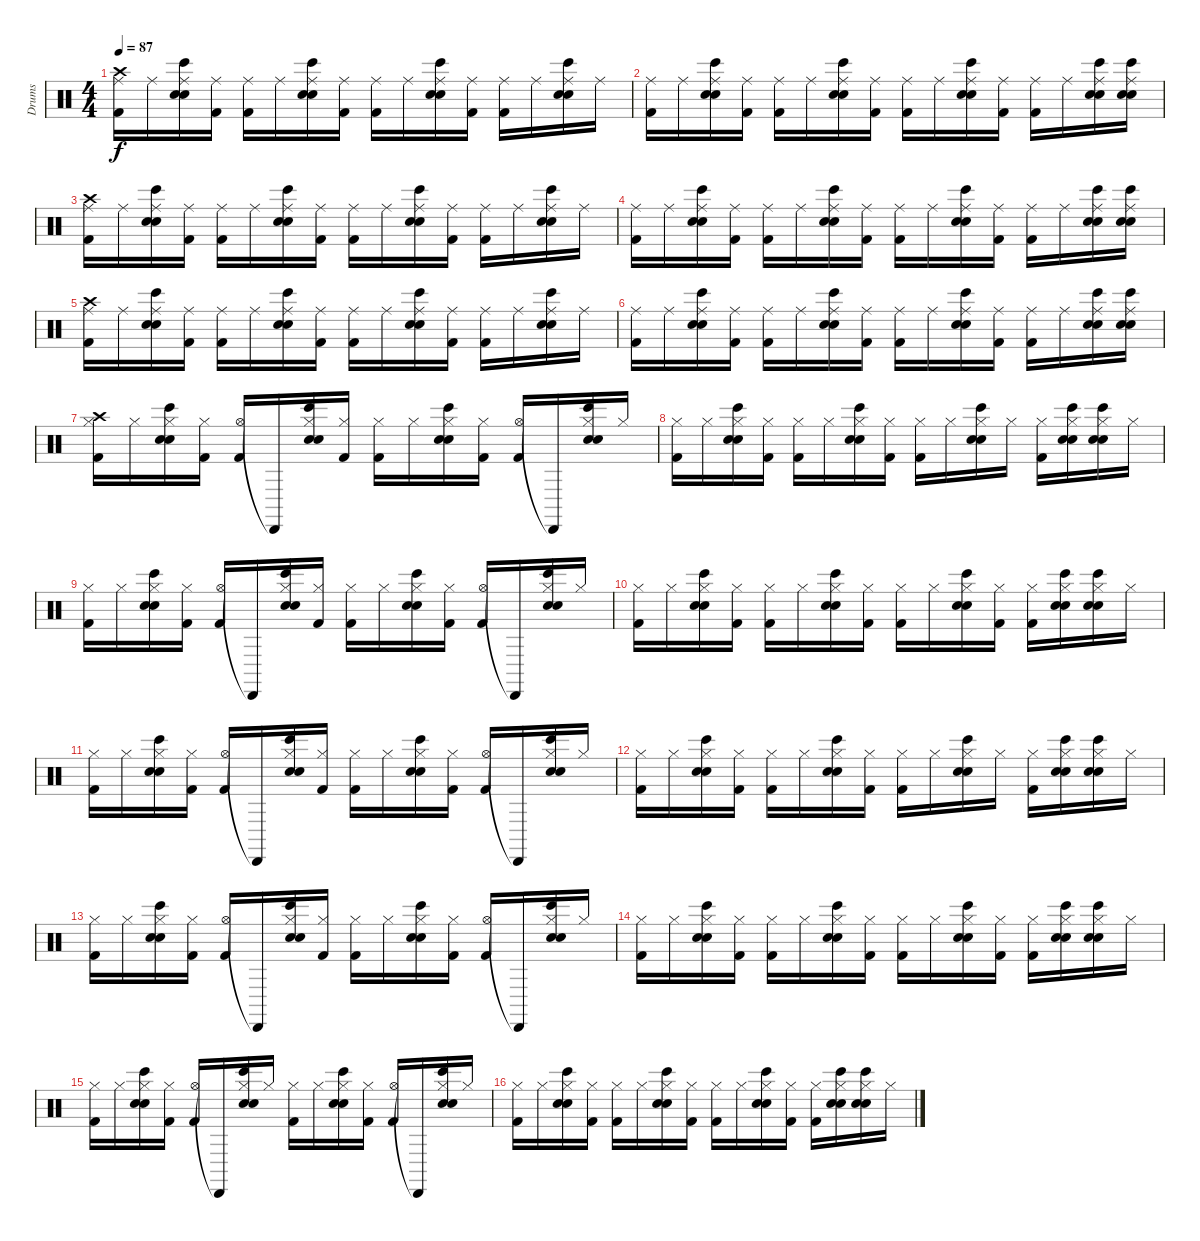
\track ("Drums" "Drums") {instrument percussion}
\staff {score}
\articulation defaults
\ts (4 4)
\tempo 87
\clef neutral
\ks c
("Crash high (hit)" "Ride (middle)" "Kick (hit) 2").16{dy f} "Ride (middle)".16 ("Ride (middle)" "Electric Snare (hit)" "Bongo High (hit)" "Snare (hit) 2").16 ("Ride (middle)" "Kick (hit) 2").16 ("Ride (middle)" "Kick (hit) 2").16 "Ride (middle)".16 ("Ride (middle)" "Electric Snare (hit)" "Bongo High (hit)" "Snare (hit) 2").16 ("Ride (middle)" "Kick (hit) 2").16 ("Ride (middle)" "Kick (hit) 2").16 "Ride (middle)".16 ("Ride (middle)" "Electric Snare (hit)" "Bongo High (hit)" "Snare (hit) 2").16 ("Ride (middle)" "Kick (hit) 2").16 ("Ride (middle)" "Kick (hit) 2").16 "Ride (middle)".16 ("Ride (middle)" "Electric Snare (hit)" "Bongo High (hit)" "Snare (hit) 2").16 "Ride (middle)".16 |
("Ride (middle)" "Kick (hit) 2").16 "Ride (middle)".16 ("Ride (middle)" "Electric Snare (hit)" "Bongo High (hit)" "Snare (hit) 2").16 ("Ride (middle)" "Kick (hit) 2").16 ("Ride (middle)" "Kick (hit) 2").16 "Ride (middle)".16 ("Ride (middle)" "Electric Snare (hit)" "Bongo High (hit)" "Snare (hit) 2").16 ("Ride (middle)" "Kick (hit) 2").16 ("Ride (middle)" "Kick (hit) 2").16 "Ride (middle)".16 ("Ride (middle)" "Electric Snare (hit)" "Bongo High (hit)" "Snare (hit) 2").16 ("Ride (middle)" "Kick (hit) 2").16 ("Ride (middle)" "Kick (hit) 2").16 "Ride (middle)".16 ("Ride (middle)" "Electric Snare (hit)" "Bongo High (hit)" "Snare (hit) 2").16 ("Ride (middle)" "Electric Snare (hit)" "Bongo High (hit)" "Snare (hit) 2").16 |
("Crash high (hit)" "Ride (middle)" "Kick (hit) 2").16 "Ride (middle)".16 ("Ride (middle)" "Electric Snare (hit)" "Bongo High (hit)" "Snare (hit) 2").16 ("Ride (middle)" "Kick (hit) 2").16 ("Ride (middle)" "Kick (hit) 2").16 "Ride (middle)".16 ("Ride (middle)" "Electric Snare (hit)" "Bongo High (hit)" "Snare (hit) 2").16 ("Ride (middle)" "Kick (hit) 2").16 ("Ride (middle)" "Kick (hit) 2").16 "Ride (middle)".16 ("Ride (middle)" "Electric Snare (hit)" "Bongo High (hit)" "Snare (hit) 2").16 ("Ride (middle)" "Kick (hit) 2").16 ("Ride (middle)" "Kick (hit) 2").16 "Ride (middle)".16 ("Ride (middle)" "Electric Snare (hit)" "Bongo High (hit)" "Snare (hit) 2").16 "Ride (middle)".16 |
("Ride (middle)" "Kick (hit) 2").16 "Ride (middle)".16 ("Ride (middle)" "Electric Snare (hit)" "Bongo High (hit)" "Snare (hit) 2").16 ("Ride (middle)" "Kick (hit) 2").16 ("Ride (middle)" "Kick (hit) 2").16 "Ride (middle)".16 ("Ride (middle)" "Electric Snare (hit)" "Bongo High (hit)" "Snare (hit) 2").16 ("Ride (middle)" "Kick (hit) 2").16 ("Ride (middle)" "Kick (hit) 2").16 "Ride (middle)".16 ("Ride (middle)" "Electric Snare (hit)" "Bongo High (hit)" "Snare (hit) 2").16 ("Ride (middle)" "Kick (hit) 2").16 ("Ride (middle)" "Kick (hit) 2").16 "Ride (middle)".16 ("Ride (middle)" "Electric Snare (hit)" "Bongo High (hit)" "Snare (hit) 2").16 ("Ride (middle)" "Electric Snare (hit)" "Bongo High (hit)" "Snare (hit) 2").16 |
("Crash high (hit)" "Ride (middle)" "Kick (hit) 2").16 "Ride (middle)".16 ("Ride (middle)" "Electric Snare (hit)" "Bongo High (hit)" "Snare (hit) 2").16 ("Ride (middle)" "Kick (hit) 2").16 ("Ride (middle)" "Kick (hit) 2").16 "Ride (middle)".16 ("Ride (middle)" "Electric Snare (hit)" "Bongo High (hit)" "Snare (hit) 2").16 ("Ride (middle)" "Kick (hit) 2").16 ("Ride (middle)" "Kick (hit) 2").16 "Ride (middle)".16 ("Ride (middle)" "Electric Snare (hit)" "Bongo High (hit)" "Snare (hit) 2").16 ("Ride (middle)" "Kick (hit) 2").16 ("Ride (middle)" "Kick (hit) 2").16 "Ride (middle)".16 ("Ride (middle)" "Electric Snare (hit)" "Bongo High (hit)" "Snare (hit) 2").16 "Ride (middle)".16 |
("Ride (middle)" "Kick (hit) 2").16 "Ride (middle)".16 ("Ride (middle)" "Electric Snare (hit)" "Bongo High (hit)" "Snare (hit) 2").16 ("Ride (middle)" "Kick (hit) 2").16 ("Ride (middle)" "Kick (hit) 2").16 "Ride (middle)".16 ("Ride (middle)" "Electric Snare (hit)" "Bongo High (hit)" "Snare (hit) 2").16 ("Ride (middle)" "Kick (hit) 2").16 ("Ride (middle)" "Kick (hit) 2").16 "Ride (middle)".16 ("Ride (middle)" "Electric Snare (hit)" "Bongo High (hit)" "Snare (hit) 2").16 ("Ride (middle)" "Kick (hit) 2").16 ("Ride (middle)" "Kick (hit) 2").16 "Ride (middle)".16 ("Ride (middle)" "Electric Snare (hit)" "Bongo High (hit)" "Snare (hit) 2").16 ("Ride (middle)" "Electric Snare (hit)" "Bongo High (hit)" "Snare (hit) 2").16 |
("Crash high (hit)" "Hi-Hat (closed)" "Kick (hit) 2").16 "Hi-Hat (closed)".16 ("Hi-Hat (closed)" "Electric Snare (hit)" "Bongo High (hit)" "Snare (hit) 2").16 ("Hi-Hat (closed)" "Kick (hit) 2").16 ("Hi-Hat (open)" "Kick (hit) 2").16 "Cabasa (hit)"{t}.16 ("Hi-Hat (closed)" "Electric Snare (hit)" "Bongo High (hit)" "Snare (hit) 2").16 ("Hi-Hat (closed)" "Kick (hit) 2").16 ("Hi-Hat (closed)" "Kick (hit) 2").16 "Hi-Hat (closed)".16 ("Hi-Hat (closed)" "Electric Snare (hit)" "Bongo High (hit)" "Snare (hit) 2").16 ("Hi-Hat (closed)" "Kick (hit) 2").16 ("Hi-Hat (open)" "Kick (hit) 2").16 "Cabasa (hit)"{t}.16 ("Hi-Hat (closed)" "Electric Snare (hit)" "Bongo High (hit)" "Snare (hit) 2").16 "Hi-Hat (closed)".16 |
("Hi-Hat (closed)" "Kick (hit) 2").16 "Hi-Hat (closed)".16 ("Hi-Hat (closed)" "Electric Snare (hit)" "Bongo High (hit)" "Snare (hit) 2").16 ("Hi-Hat (closed)" "Kick (hit) 2").16 ("Hi-Hat (closed)" "Kick (hit) 2").16 "Hi-Hat (closed)".16 ("Hi-Hat (closed)" "Electric Snare (hit)" "Bongo High (hit)" "Snare (hit) 2").16 ("Hi-Hat (closed)" "Kick (hit) 2").16 ("Hi-Hat (closed)" "Kick (hit) 2").16 "Hi-Hat (closed)".16 ("Hi-Hat (closed)" "Electric Snare (hit)" "Bongo High (hit)" "Snare (hit) 2").16 "Hi-Hat (closed)".16 ("Hi-Hat (closed)" "Kick (hit) 2").16 ("Hi-Hat (closed)" "Electric Snare (hit)" "Bongo High (hit)" "Snare (hit) 2").16 ("Hi-Hat (closed)" "Electric Snare (hit)" "Bongo High (hit)" "Snare (hit) 2").16 "Hi-Hat (closed)".16 |
("Hi-Hat (closed)" "Kick (hit) 2").16 "Hi-Hat (closed)".16 ("Hi-Hat (closed)" "Electric Snare (hit)" "Bongo High (hit)" "Snare (hit) 2").16 ("Hi-Hat (closed)" "Kick (hit) 2").16 ("Hi-Hat (open)" "Kick (hit) 2").16 "Cabasa (hit)"{t}.16 ("Hi-Hat (closed)" "Electric Snare (hit)" "Bongo High (hit)" "Snare (hit) 2").16 ("Hi-Hat (closed)" "Kick (hit) 2").16 ("Hi-Hat (closed)" "Kick (hit) 2").16 "Hi-Hat (closed)".16 ("Hi-Hat (closed)" "Electric Snare (hit)" "Bongo High (hit)" "Snare (hit) 2").16 ("Hi-Hat (closed)" "Kick (hit) 2").16 ("Hi-Hat (open)" "Kick (hit) 2").16 "Cabasa (hit)"{t}.16 ("Hi-Hat (closed)" "Electric Snare (hit)" "Bongo High (hit)" "Snare (hit) 2").16 "Hi-Hat (closed)".16 |
("Hi-Hat (closed)" "Kick (hit) 2").16 "Hi-Hat (closed)".16 ("Hi-Hat (closed)" "Electric Snare (hit)" "Bongo High (hit)" "Snare (hit) 2").16 ("Hi-Hat (closed)" "Kick (hit) 2").16 ("Hi-Hat (closed)" "Kick (hit) 2").16 "Hi-Hat (closed)".16 ("Hi-Hat (closed)" "Electric Snare (hit)" "Bongo High (hit)" "Snare (hit) 2").16 ("Hi-Hat (closed)" "Kick (hit) 2").16 ("Hi-Hat (closed)" "Kick (hit) 2").16 "Hi-Hat (closed)".16 ("Hi-Hat (closed)" "Electric Snare (hit)" "Bongo High (hit)" "Snare (hit) 2").16 ("Hi-Hat (closed)" "Kick (hit) 2").16 ("Hi-Hat (closed)" "Kick (hit) 2").16 ("Hi-Hat (closed)" "Electric Snare (hit)" "Bongo High (hit)" "Snare (hit) 2").16 ("Hi-Hat (closed)" "Electric Snare (hit)" "Bongo High (hit)" "Snare (hit) 2").16 "Hi-Hat (closed)".16 |
("Hi-Hat (closed)" "Kick (hit) 2").16 "Hi-Hat (closed)".16 ("Hi-Hat (closed)" "Electric Snare (hit)" "Bongo High (hit)" "Snare (hit) 2").16 ("Hi-Hat (closed)" "Kick (hit) 2").16 ("Hi-Hat (open)" "Kick (hit) 2").16 "Cabasa (hit)"{t}.16 ("Hi-Hat (closed)" "Electric Snare (hit)" "Bongo High (hit)" "Snare (hit) 2").16 ("Hi-Hat (closed)" "Kick (hit) 2").16 ("Hi-Hat (closed)" "Kick (hit) 2").16 "Hi-Hat (closed)".16 ("Hi-Hat (closed)" "Electric Snare (hit)" "Bongo High (hit)" "Snare (hit) 2").16 ("Hi-Hat (closed)" "Kick (hit) 2").16 ("Hi-Hat (open)" "Kick (hit) 2").16 "Cabasa (hit)"{t}.16 ("Hi-Hat (closed)" "Electric Snare (hit)" "Bongo High (hit)" "Snare (hit) 2").16 "Hi-Hat (closed)".16 |
("Hi-Hat (closed)" "Kick (hit) 2").16 "Hi-Hat (closed)".16 ("Hi-Hat (closed)" "Electric Snare (hit)" "Bongo High (hit)" "Snare (hit) 2").16 ("Hi-Hat (closed)" "Kick (hit) 2").16 ("Hi-Hat (closed)" "Kick (hit) 2").16 "Hi-Hat (closed)".16 ("Hi-Hat (closed)" "Electric Snare (hit)" "Bongo High (hit)" "Snare (hit) 2").16 ("Hi-Hat (closed)" "Kick (hit) 2").16 ("Hi-Hat (closed)" "Kick (hit) 2").16 "Hi-Hat (closed)".16 ("Hi-Hat (closed)" "Electric Snare (hit)" "Bongo High (hit)" "Snare (hit) 2").16 "Hi-Hat (closed)".16 ("Hi-Hat (closed)" "Kick (hit) 2").16 ("Hi-Hat (closed)" "Electric Snare (hit)" "Bongo High (hit)" "Snare (hit) 2").16 ("Hi-Hat (closed)" "Electric Snare (hit)" "Bongo High (hit)" "Snare (hit) 2").16 "Hi-Hat (closed)".16 |
("Hi-Hat (closed)" "Kick (hit) 2").16 "Hi-Hat (closed)".16 ("Hi-Hat (closed)" "Electric Snare (hit)" "Bongo High (hit)" "Snare (hit) 2").16 ("Hi-Hat (closed)" "Kick (hit) 2").16 ("Hi-Hat (open)" "Kick (hit) 2").16 "Cabasa (hit)"{t}.16 ("Hi-Hat (closed)" "Electric Snare (hit)" "Bongo High (hit)" "Snare (hit) 2").16 ("Hi-Hat (closed)" "Kick (hit) 2").16 ("Hi-Hat (closed)" "Kick (hit) 2").16 "Hi-Hat (closed)".16 ("Hi-Hat (closed)" "Electric Snare (hit)" "Bongo High (hit)" "Snare (hit) 2").16 ("Hi-Hat (closed)" "Kick (hit) 2").16 ("Hi-Hat (open)" "Kick (hit) 2").16 "Cabasa (hit)"{t}.16 ("Hi-Hat (closed)" "Electric Snare (hit)" "Bongo High (hit)" "Snare (hit) 2").16 "Hi-Hat (closed)".16 |
("Hi-Hat (closed)" "Kick (hit) 2").16 "Hi-Hat (closed)".16 ("Hi-Hat (closed)" "Electric Snare (hit)" "Bongo High (hit)" "Snare (hit) 2").16 ("Hi-Hat (closed)" "Kick (hit) 2").16 ("Hi-Hat (closed)" "Kick (hit) 2").16 "Hi-Hat (closed)".16 ("Hi-Hat (closed)" "Electric Snare (hit)" "Bongo High (hit)" "Snare (hit) 2").16 ("Hi-Hat (closed)" "Kick (hit) 2").16 ("Hi-Hat (closed)" "Kick (hit) 2").16 "Hi-Hat (closed)".16 ("Hi-Hat (closed)" "Electric Snare (hit)" "Bongo High (hit)" "Snare (hit) 2").16 ("Hi-Hat (closed)" "Kick (hit) 2").16 ("Hi-Hat (closed)" "Kick (hit) 2").16 ("Hi-Hat (closed)" "Electric Snare (hit)" "Bongo High (hit)" "Snare (hit) 2").16 ("Hi-Hat (closed)" "Electric Snare (hit)" "Bongo High (hit)" "Snare (hit) 2").16 "Hi-Hat (closed)".16 |
("Hi-Hat (closed)" "Kick (hit) 2").16 "Hi-Hat (closed)".16 ("Hi-Hat (closed)" "Electric Snare (hit)" "Bongo High (hit)" "Snare (hit) 2").16 ("Hi-Hat (closed)" "Kick (hit) 2").16 ("Hi-Hat (open)" "Kick (hit) 2").16 "Cabasa (hit)"{t}.16 ("Hi-Hat (closed)" "Electric Snare (hit)" "Bongo High (hit)" "Snare (hit) 2").16 "Hi-Hat (closed)".16 ("Hi-Hat (closed)" "Kick (hit) 2").16 "Hi-Hat (closed)".16 ("Hi-Hat (closed)" "Electric Snare (hit)" "Bongo High (hit)" "Snare (hit) 2").16 ("Hi-Hat (closed)" "Kick (hit) 2").16 ("Hi-Hat (open)" "Kick (hit) 2").16 "Cabasa (hit)"{t}.16 ("Hi-Hat (closed)" "Electric Snare (hit)" "Bongo High (hit)" "Snare (hit) 2").16 "Hi-Hat (closed)".16 |
("Hi-Hat (closed)" "Kick (hit) 2").16 "Hi-Hat (closed)".16 ("Hi-Hat (closed)" "Electric Snare (hit)" "Bongo High (hit)" "Snare (hit) 2").16 ("Hi-Hat (closed)" "Kick (hit) 2").16 ("Hi-Hat (closed)" "Kick (hit) 2").16 "Hi-Hat (closed)".16 ("Hi-Hat (closed)" "Electric Snare (hit)" "Bongo High (hit)" "Snare (hit) 2").16 ("Hi-Hat (closed)" "Kick (hit) 2").16 ("Hi-Hat (closed)" "Kick (hit) 2").16 "Hi-Hat (closed)".16 ("Hi-Hat (closed)" "Electric Snare (hit)" "Bongo High (hit)" "Snare (hit) 2").16 ("Hi-Hat (closed)" "Kick (hit) 2").16 ("Hi-Hat (closed)" "Kick (hit) 2").16 ("Hi-Hat (closed)" "Electric Snare (hit)" "Bongo High (hit)" "Snare (hit) 2").16 ("Hi-Hat (closed)" "Electric Snare (hit)" "Bongo High (hit)" "Snare (hit) 2").16 "Hi-Hat (closed)".16
